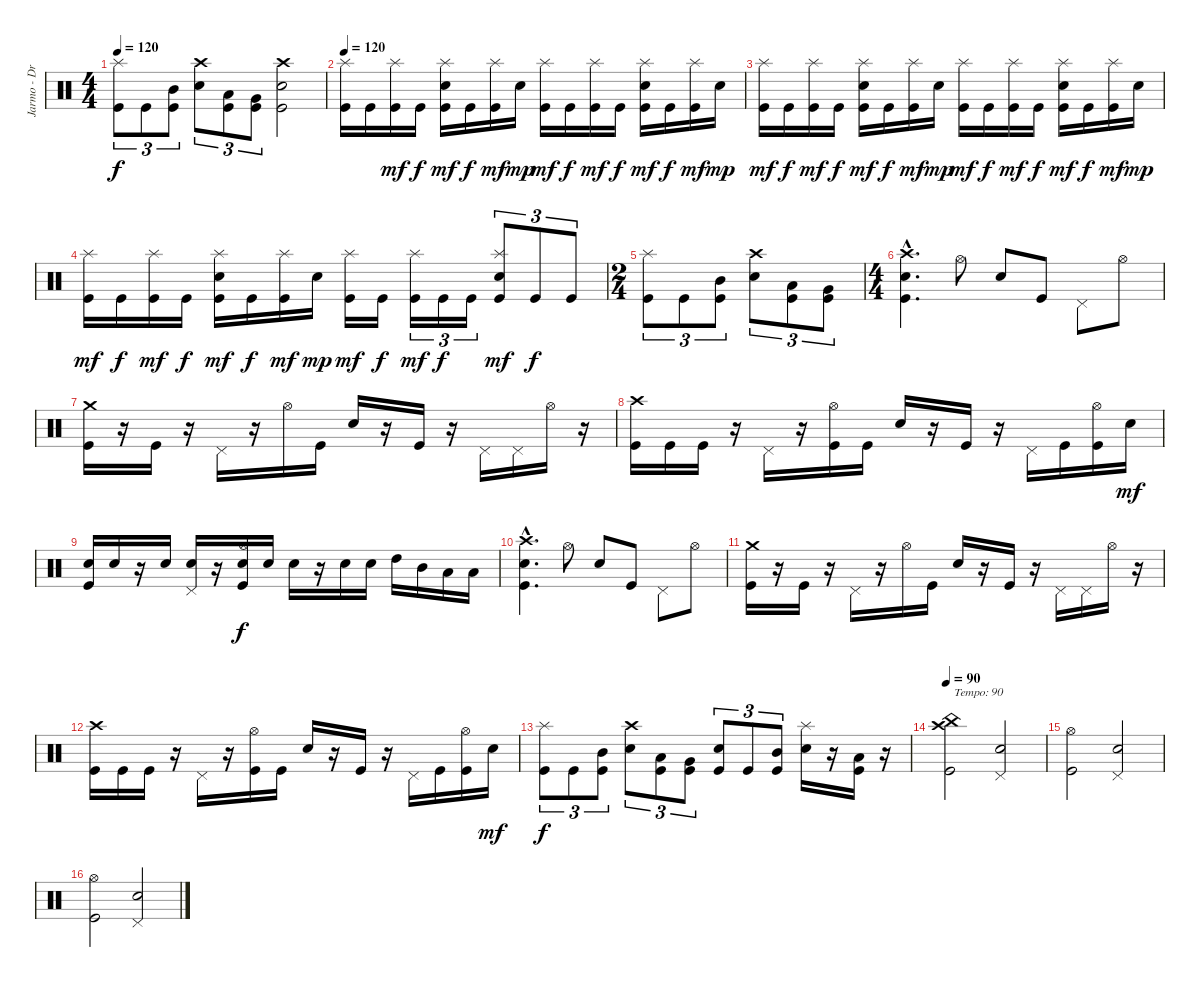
\track ("Jarmo - Drums" "Jarmo - Dr") {instrument percussion}
\staff {score}
\articulation defaults
\ts (4 4)
\tempo 120
\clef neutral
\ks c
("Kick (hit)" "Splash (hit)").8{tu (3 2) dy f} "Kick (hit)".8{tu (3 2)} ("Kick (hit)" "Mid Tom (hit)").8{tu (3 2)} ("Electric Snare (hit)" "Crash high (hit)").8{tu (3 2)} ("Kick (hit)" "Low Tom (hit)").8{tu (3 2)} ("Kick (hit)" "Very Low Tom (hit)").8{tu (3 2)} ("Kick (hit)" "Electric Snare (hit)" "Crash high (hit)").2 |
\tempo 120
("Kick (hit)" "Splash (hit)").16 "Kick (hit)".16 ("Kick (hit)" "Splash (hit)").16{dy mf} "Kick (hit)".16{dy f} ("Kick (hit)" "Electric Snare (hit)" "Splash (hit)").16{dy mf} "Kick (hit)".16{dy f} ("Kick (hit)" "Splash (hit)").16{dy mf} "Electric Snare (hit)".16{dy mp} ("Kick (hit)" "Splash (hit)").16{dy mf} "Kick (hit)".16{dy f} ("Kick (hit)" "Splash (hit)").16{dy mf} "Kick (hit)".16{dy f} ("Kick (hit)" "Electric Snare (hit)" "Splash (hit)").16{dy mf} "Kick (hit)".16{dy f} ("Kick (hit)" "Splash (hit)").16{dy mf} "Electric Snare (hit)".16{dy mp} |
("Kick (hit)" "Splash (hit)").16{dy mf} "Kick (hit)".16{dy f} ("Kick (hit)" "Splash (hit)").16{dy mf} "Kick (hit)".16{dy f} ("Kick (hit)" "Electric Snare (hit)" "Splash (hit)").16{dy mf} "Kick (hit)".16{dy f} ("Kick (hit)" "Splash (hit)").16{dy mf} "Electric Snare (hit)".16{dy mp} ("Kick (hit)" "Splash (hit)").16{dy mf} "Kick (hit)".16{dy f} ("Kick (hit)" "Splash (hit)").16{dy mf} "Kick (hit)".16{dy f} ("Kick (hit)" "Electric Snare (hit)" "Splash (hit)").16{dy mf} "Kick (hit)".16{dy f} ("Kick (hit)" "Splash (hit)").16{dy mf} "Electric Snare (hit)".16{dy mp} |
("Kick (hit)" "Splash (hit)").16{dy mf} "Kick (hit)".16{dy f} ("Kick (hit)" "Splash (hit)").16{dy mf} "Kick (hit)".16{dy f} ("Kick (hit)" "Electric Snare (hit)" "Splash (hit)").16{dy mf} "Kick (hit)".16{dy f} ("Kick (hit)" "Splash (hit)").16{dy mf} "Electric Snare (hit)".16{dy mp} ("Kick (hit)" "Splash (hit)").16{dy mf} "Kick (hit)".16{dy f} ("Kick (hit)" "Splash (hit)").16{tu (3 2) dy mf} "Kick (hit)".16{tu (3 2) dy f} "Kick (hit)".16{tu (3 2)} ("Kick (hit)" "Electric Snare (hit)" "Splash (hit)").8{tu (3 2) dy mf} "Kick (hit)".8{tu (3 2) dy f} "Kick (hit)".8{tu (3 2)} |
\ts (2 4)
("Kick (hit)" "Splash (hit)").8{tu (3 2)} "Kick (hit)".8{tu (3 2)} ("Kick (hit)" "Mid Tom (hit)").8{tu (3 2)} ("Electric Snare (hit)" "Crash high (hit)").8{tu (3 2)} ("Kick (hit)" "Low Tom (hit)").8{tu (3 2)} ("Kick (hit)" "Very Low Tom (hit)").8{tu (3 2)} |
\ts (4 4)
("Kick (hit)"{hac} "Electric Snare (hit)"{hac} "Crash high (hit)"{hac}).4{d} "Hi-Hat (open)".8 "Electric Snare (hit)".8 "Kick (hit)".8 "Pedal Hi-Hat (hit)".8 "Hi-Hat (open)".8 |
("Kick (hit)" "Crash medium (hit)").16 r.16 "Kick (hit)".16 r.16 "Pedal Hi-Hat (hit)".16 r.16 "Hi-Hat (open)".16 "Kick (hit)".16 "Electric Snare (hit)".16 r.16 "Kick (hit)".16 r.16 "Pedal Hi-Hat (hit)".16 "Pedal Hi-Hat (hit)".16 "Hi-Hat (open)".16 r.16 |
("Kick (hit)" "Crash high (hit)").16 "Kick (hit)".16 "Kick (hit)".16 r.16 "Pedal Hi-Hat (hit)".16 r.16 ("Kick (hit)" "Hi-Hat (open)").16 "Kick (hit)".16 "Electric Snare (hit)".16 r.16 "Kick (hit)".16 r.16 "Pedal Hi-Hat (hit)".16 "Kick (hit)".16 ("Kick (hit)" "Hi-Hat (open)").16 "Snare (hit) 2".16{dy mf} |
("Kick (hit)" "Snare (hit) 2").16 "Snare (hit) 2".16 r.16 "Snare (hit) 2".16 ("Snare (hit) 2" "Pedal Hi-Hat (hit)").16 r.16 ("Kick (hit)" "Snare (hit) 2" "Hi-Hat (open)").16{dy f} "Snare (hit) 2".16 "Electric Snare (hit)".16 r.16 "Electric Snare (hit)".16 "Electric Snare (hit)".16 "High Tom (hit)".16 "Mid Tom (hit)".16 "Low Tom (hit)".16 "Low Tom (hit)".16 |
("Kick (hit)"{hac} "Electric Snare (hit)"{hac} "Crash high (hit)"{hac}).4{d} "Hi-Hat (open)".8 "Electric Snare (hit)".8 "Kick (hit)".8 "Pedal Hi-Hat (hit)".8 "Hi-Hat (open)".8 |
("Kick (hit)" "Crash medium (hit)").16 r.16 "Kick (hit)".16 r.16 "Pedal Hi-Hat (hit)".16 r.16 "Hi-Hat (open)".16 "Kick (hit)".16 "Electric Snare (hit)".16 r.16 "Kick (hit)".16 r.16 "Pedal Hi-Hat (hit)".16 "Pedal Hi-Hat (hit)".16 "Hi-Hat (open)".16 r.16 |
("Kick (hit)" "Crash high (hit)").16 "Kick (hit)".16 "Kick (hit)".16 r.16 "Pedal Hi-Hat (hit)".16 r.16 ("Kick (hit)" "Hi-Hat (open)").16 "Kick (hit)".16 "Electric Snare (hit)".16 r.16 "Kick (hit)".16 r.16 "Pedal Hi-Hat (hit)".16 "Kick (hit)".16 ("Kick (hit)" "Hi-Hat (open)").16 "Snare (hit) 2".16{dy mf} |
("Kick (hit)" "Splash (hit)").8{tu (3 2) dy f} "Kick (hit)".8{tu (3 2)} ("Kick (hit)" "Mid Tom (hit)").8{tu (3 2)} ("Electric Snare (hit)" "Crash high (hit)").8{tu (3 2)} ("Kick (hit)" "Low Tom (hit)").8{tu (3 2)} ("Kick (hit)" "Very Low Tom (hit)").8{tu (3 2)} ("Kick (hit)" "Electric Snare (hit)").8{tu (3 2)} "Kick (hit)".8{tu (3 2)} ("Kick (hit)" "Mid Tom (hit)").8{tu (3 2)} ("Electric Snare (hit)" "Splash (hit)").16 r.16 ("Kick (hit)" "Low Tom (hit)").16 r.16 |
\tempo 90
("Kick (hit)" "China (hit)" "Crash high (hit)").2{txt "Tempo: 90"} ("Electric Snare (hit)" "Pedal Hi-Hat (hit)").2 |
("Kick (hit)" "Hi-Hat (open)").2 ("Electric Snare (hit)" "Pedal Hi-Hat (hit)").2 |
("Kick (hit)" "Hi-Hat (open)").2 ("Electric Snare (hit)" "Pedal Hi-Hat (hit)").2
